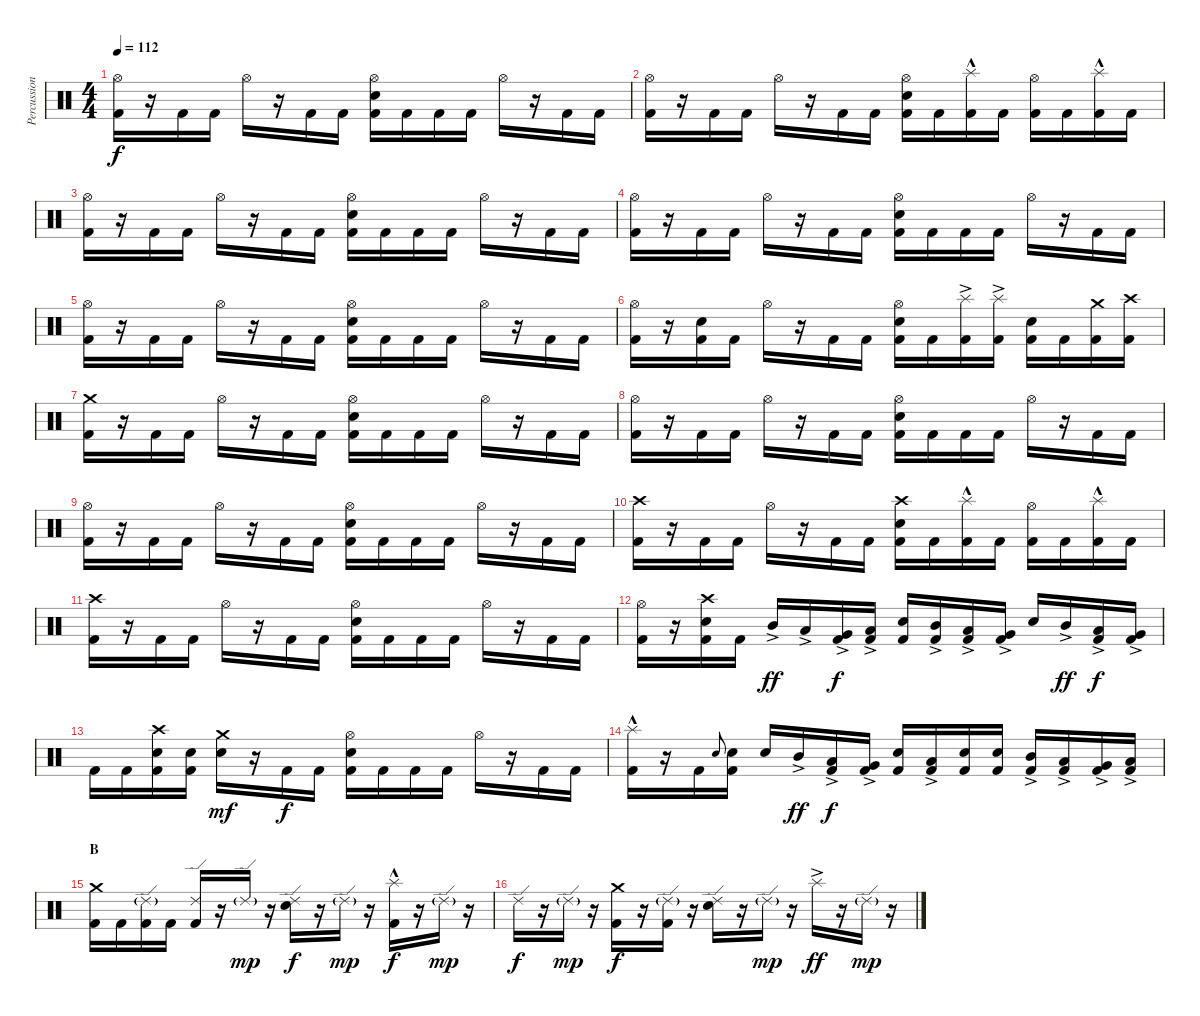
\track ("Percussion" "Percussion") {instrument percussion}
\staff {score}
\articulation defaults
\ts (4 4)
\tempo 112
\clef neutral
\ks c
("Hi-Hat (open)" "Kick (hit) 2").16{dy f} r.16 "Kick (hit) 2".16 "Kick (hit) 2".16 "Hi-Hat (open)".16 r.16 "Kick (hit) 2".16 "Kick (hit) 2".16 ("Hi-Hat (open)" "Electric Snare (hit)" "Kick (hit) 2").16 "Kick (hit) 2".16 "Kick (hit) 2".16 "Kick (hit) 2".16 "Hi-Hat (open)".16 r.16 "Kick (hit) 2".16 "Kick (hit) 2".16 |
("Hi-Hat (open)" "Kick (hit) 2").16 r.16 "Kick (hit) 2".16 "Kick (hit) 2".16 "Hi-Hat (open)".16 r.16 "Kick (hit) 2".16 "Kick (hit) 2".16 ("Hi-Hat (open)" "Electric Snare (hit)" "Kick (hit) 2").16 "Kick (hit) 2".16 ("Splash (hit)"{hac} "Kick (hit) 2").16 "Kick (hit) 2".16 ("Hi-Hat (open)" "Kick (hit) 2").16 "Kick (hit) 2".16 ("Splash (hit)"{hac} "Kick (hit) 2").16 "Kick (hit) 2".16 |
("Hi-Hat (open)" "Kick (hit) 2").16 r.16 "Kick (hit) 2".16 "Kick (hit) 2".16 "Hi-Hat (open)".16 r.16 "Kick (hit) 2".16 "Kick (hit) 2".16 ("Hi-Hat (open)" "Electric Snare (hit)" "Kick (hit) 2").16 "Kick (hit) 2".16 "Kick (hit) 2".16 "Kick (hit) 2".16 "Hi-Hat (open)".16 r.16 "Kick (hit) 2".16 "Kick (hit) 2".16 |
("Hi-Hat (open)" "Kick (hit) 2").16 r.16 "Kick (hit) 2".16 "Kick (hit) 2".16 "Hi-Hat (open)".16 r.16 "Kick (hit) 2".16 "Kick (hit) 2".16 ("Hi-Hat (open)" "Electric Snare (hit)" "Kick (hit) 2").16 "Kick (hit) 2".16 "Kick (hit) 2".16 "Kick (hit) 2".16 "Hi-Hat (open)".16 r.16 "Kick (hit) 2".16 "Kick (hit) 2".16 |
("Hi-Hat (open)" "Kick (hit) 2").16 r.16 "Kick (hit) 2".16 "Kick (hit) 2".16 "Hi-Hat (open)".16 r.16 "Kick (hit) 2".16 "Kick (hit) 2".16 ("Hi-Hat (open)" "Electric Snare (hit)" "Kick (hit) 2").16 "Kick (hit) 2".16 "Kick (hit) 2".16 "Kick (hit) 2".16 "Hi-Hat (open)".16 r.16 "Kick (hit) 2".16 "Kick (hit) 2".16 |
("Hi-Hat (open)" "Kick (hit) 2").16 r.16 ("Electric Snare (hit)" "Kick (hit) 2").16 "Kick (hit) 2".16 "Hi-Hat (open)".16 r.16 "Kick (hit) 2".16 "Kick (hit) 2".16 ("Hi-Hat (open)" "Electric Snare (hit)" "Kick (hit) 2").16 "Kick (hit) 2".16 ("Splash (hit)"{ac} "Kick (hit) 2").16 ("Splash (hit)"{ac} "Kick (hit) 2").16 ("Electric Snare (hit)" "Kick (hit) 2").16 "Kick (hit) 2".16 ("Crash medium (hit)" "Kick (hit) 2").16 ("Crash high (hit)" "Kick (hit) 2").16 |
("Crash medium (hit)" "Kick (hit) 2").16 r.16 "Kick (hit) 2".16 "Kick (hit) 2".16 "Hi-Hat (open)".16 r.16 "Kick (hit) 2".16 "Kick (hit) 2".16 ("Hi-Hat (open)" "Electric Snare (hit)" "Kick (hit) 2").16 "Kick (hit) 2".16 "Kick (hit) 2".16 "Kick (hit) 2".16 "Hi-Hat (open)".16 r.16 "Kick (hit) 2".16 "Kick (hit) 2".16 |
("Hi-Hat (open)" "Kick (hit) 2").16 r.16 "Kick (hit) 2".16 "Kick (hit) 2".16 "Hi-Hat (open)".16 r.16 "Kick (hit) 2".16 "Kick (hit) 2".16 ("Hi-Hat (open)" "Electric Snare (hit)" "Kick (hit) 2").16 "Kick (hit) 2".16 "Kick (hit) 2".16 "Kick (hit) 2".16 "Hi-Hat (open)".16 r.16 "Kick (hit) 2".16 "Kick (hit) 2".16 |
("Hi-Hat (open)" "Kick (hit) 2").16 r.16 "Kick (hit) 2".16 "Kick (hit) 2".16 "Hi-Hat (open)".16 r.16 "Kick (hit) 2".16 "Kick (hit) 2".16 ("Hi-Hat (open)" "Electric Snare (hit)" "Kick (hit) 2").16 "Kick (hit) 2".16 "Kick (hit) 2".16 "Kick (hit) 2".16 "Hi-Hat (open)".16 r.16 "Kick (hit) 2".16 "Kick (hit) 2".16 |
("Crash high (hit)" "Kick (hit) 2").16 r.16 "Kick (hit) 2".16 "Kick (hit) 2".16 "Hi-Hat (open)".16 r.16 "Kick (hit) 2".16 "Kick (hit) 2".16 ("Crash high (hit)" "Electric Snare (hit)" "Kick (hit) 2").16 "Kick (hit) 2".16 ("Splash (hit)"{hac} "Kick (hit) 2").16 "Kick (hit) 2".16 ("Hi-Hat (open)" "Kick (hit) 2").16 "Kick (hit) 2".16 ("Splash (hit)"{hac} "Kick (hit) 2").16 "Kick (hit) 2".16 |
("Crash high (hit)" "Kick (hit) 2").16 r.16 "Kick (hit) 2".16 "Kick (hit) 2".16 "Hi-Hat (open)".16 r.16 "Kick (hit) 2".16 "Kick (hit) 2".16 ("Hi-Hat (open)" "Electric Snare (hit)" "Kick (hit) 2").16 "Kick (hit) 2".16 "Kick (hit) 2".16 "Kick (hit) 2".16 "Hi-Hat (open)".16 r.16 "Kick (hit) 2".16 "Kick (hit) 2".16 |
("Hi-Hat (open)" "Kick (hit) 2").16 r.16 ("Crash high (hit)" "Electric Snare (hit)" "Kick (hit) 2").16 "Kick (hit) 2".16 "Mid Tom (hit)"{ac}.16{dy ff} "Low Tom (hit)"{ac}.16 ("Very Low Tom (hit)"{ac} "Kick (hit) 2").16{dy f} ("Low Floor Tom (hit)"{ac} "Kick (hit) 2").16 ("Electric Snare (hit)" "Kick (hit) 2").16 ("Mid Tom (hit)"{ac} "Kick (hit) 2").16 ("Low Tom (hit)"{ac} "Kick (hit) 2").16 ("Very Low Tom (hit)"{ac} "Kick (hit) 2").16 "Electric Snare (hit)".16 "Mid Tom (hit)"{ac}.16{dy ff} ("Low Tom (hit)"{ac} "Kick (hit) 2").16{dy f} ("Very Low Tom (hit)"{ac} "Kick (hit) 2").16 |
"Kick (hit) 2".16 "Kick (hit) 2".16 ("Crash high (hit)" "Electric Snare (hit)" "Kick (hit) 2").16 ("Electric Snare (hit)" "Kick (hit) 2").16 ("Crash medium (hit)" "Electric Snare (hit)").16{dy mf} r.16 "Kick (hit) 2".16{dy f} "Kick (hit) 2".16 ("Hi-Hat (open)" "Electric Snare (hit)" "Kick (hit) 2").16 "Kick (hit) 2".16 "Kick (hit) 2".16 "Kick (hit) 2".16 "Hi-Hat (open)".16 r.16 "Kick (hit) 2".16 "Kick (hit) 2".16 |
("Splash (hit)"{hac} "Kick (hit) 2").16 r.16 "Kick (hit) 2".16 "Electric Snare (hit)".8{gr onbeat} ("Electric Snare (hit)" "Kick (hit) 2").16 "Electric Snare (hit)".16 "Mid Tom (hit)"{ac}.16{dy ff} ("Low Tom (hit)"{ac} "Kick (hit) 2").16{dy f} ("Very Low Tom (hit)"{ac} "Kick (hit) 2").16 ("Electric Snare (hit)" "Kick (hit) 2").16 ("Low Tom (hit)"{ac} "Kick (hit) 2").16 ("Electric Snare (hit)" "Kick (hit) 2").16 ("Electric Snare (hit)" "Kick (hit) 2").16 ("Mid Tom (hit)"{ac} "Kick (hit) 2").16 ("Low Tom (hit)"{ac} "Kick (hit) 2").16 ("Very Low Tom (hit)"{ac} "Kick (hit) 2").16 ("Low Floor Tom (hit)"{ac} "Kick (hit) 2").16 |
\section ("" "B")
("Crash medium (hit)" "Kick (hit) 2").16 "Kick (hit) 2".16 ("Ride (edge) 2"{g} "Kick (hit) 2").16 "Kick (hit) 2".16 ("Ride (edge) 2" "Kick (hit) 2").16 r.16 "Ride (edge) 2"{g}.16{dy mp} r.16 ("Ride (edge) 2" "Electric Snare (hit)").16{dy f} r.16 "Ride (edge) 2"{g}.16{dy mp} r.16 ("Splash (hit)"{hac} "Kick (hit) 2").16{dy f} r.16 "Ride (edge) 2"{g}.16{dy mp} r.16 |
"Ride (edge) 2".16{dy f} r.16 "Ride (edge) 2"{g}.16{dy mp} r.16 ("Crash medium (hit)" "Kick (hit) 2").16{dy f} r.16 ("Ride (edge) 2"{g} "Kick (hit) 2").16 r.16 ("Ride (edge) 2" "Electric Snare (hit)").16 r.16 "Ride (edge) 2"{g}.16{dy mp} r.16 "Splash (hit)"{ac}.16{dy ff} r.16 "Ride (edge) 2"{g}.16{dy mp} r.16
